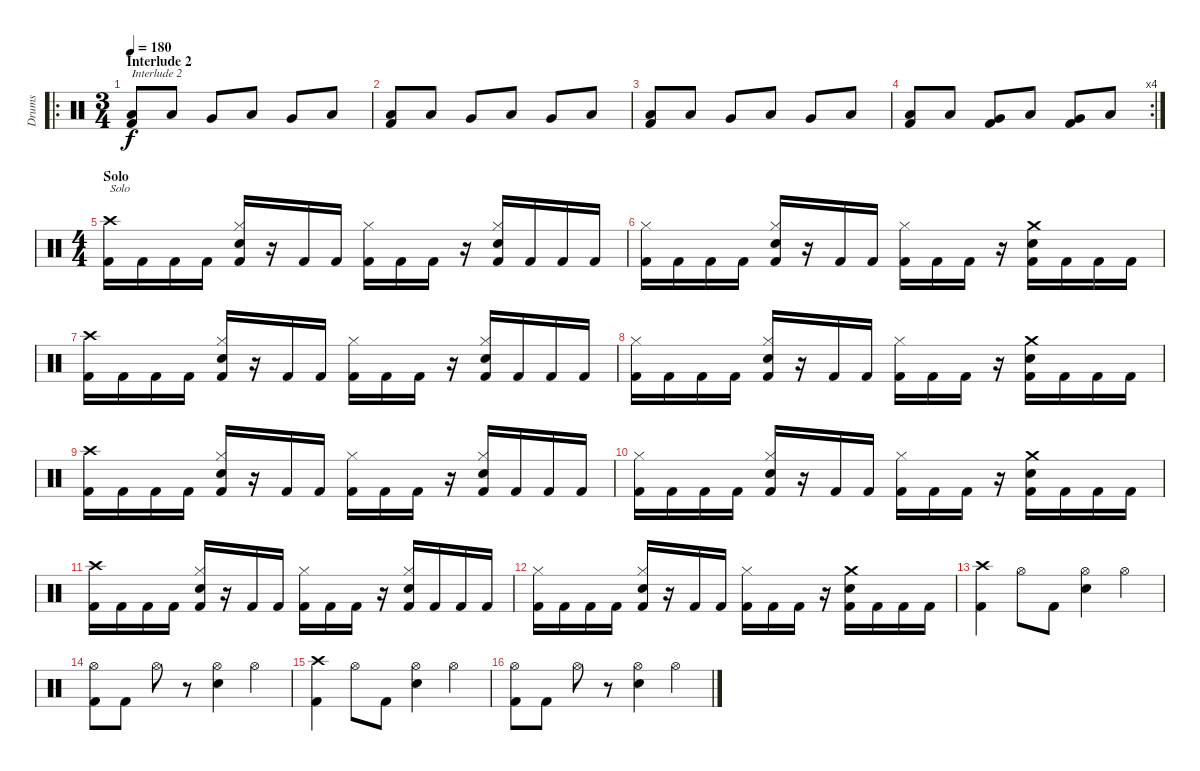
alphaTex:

\track ("Drums" "Drums") {instrument percussion}
\staff {score}
\articulation defaults
\ro
\ts (3 4)
\section ("" "Interlude 2")
\tempo 180
\clef neutral
\ks c
("Low Tom (hit)" "Kick (hit) 2").8{txt "Interlude 2" dy f} "Low Floor Tom (hit)".8 "Very Low Tom (hit)".8 "Low Tom (hit)".8 "Very Low Tom (hit)".8 "Low Tom (hit)".8 |
("Low Tom (hit)" "Kick (hit) 2").8 "Low Floor Tom (hit)".8 "Very Low Tom (hit)".8 "Low Tom (hit)".8 "Very Low Tom (hit)".8 "Low Tom (hit)".8 |
("Low Tom (hit)" "Kick (hit) 2").8 "Low Floor Tom (hit)".8 "Very Low Tom (hit)".8 "Low Tom (hit)".8 "Very Low Tom (hit)".8 "Low Tom (hit)".8 |
\rc 4
("Low Tom (hit)" "Kick (hit) 2").8 "Low Floor Tom (hit)".8 ("Very Low Tom (hit)" "Kick (hit) 2").8 "Low Tom (hit)".8 ("Very Low Tom (hit)" "Kick (hit) 2").8 "Low Tom (hit)".8 |
\ts (4 4)
\section ("" "Solo")
("Crash high (hit)" "Kick (hit) 2").16{txt "Solo"} "Kick (hit) 2".16 "Kick (hit) 2".16 "Kick (hit) 2".16 ("Hi-Hat (closed)" "Snare (hit) 2" "Kick (hit) 2").16 r.16 "Kick (hit) 2".16 "Kick (hit) 2".16 ("Hi-Hat (closed)" "Kick (hit) 2").16 "Kick (hit) 2".16 "Kick (hit) 2".16 r.16 ("Hi-Hat (closed)" "Snare (hit) 2" "Kick (hit) 2").16 "Kick (hit) 2".16 "Kick (hit) 2".16 "Kick (hit) 2".16 |
("Hi-Hat (closed)" "Kick (hit) 2").16 "Kick (hit) 2".16 "Kick (hit) 2".16 "Kick (hit) 2".16 ("Hi-Hat (closed)" "Snare (hit) 2" "Kick (hit) 2").16 r.16 "Kick (hit) 2".16 "Kick (hit) 2".16 ("Hi-Hat (closed)" "Kick (hit) 2").16 "Kick (hit) 2".16 "Kick (hit) 2".16 r.16 ("Crash medium (hit)" "Snare (hit) 2" "Kick (hit) 2").16 "Kick (hit) 2".16 "Kick (hit) 2".16 "Kick (hit) 2".16 |
("Crash high (hit)" "Kick (hit) 2").16 "Kick (hit) 2".16 "Kick (hit) 2".16 "Kick (hit) 2".16 ("Hi-Hat (closed)" "Snare (hit) 2" "Kick (hit) 2").16 r.16 "Kick (hit) 2".16 "Kick (hit) 2".16 ("Hi-Hat (closed)" "Kick (hit) 2").16 "Kick (hit) 2".16 "Kick (hit) 2".16 r.16 ("Hi-Hat (closed)" "Snare (hit) 2" "Kick (hit) 2").16 "Kick (hit) 2".16 "Kick (hit) 2".16 "Kick (hit) 2".16 |
("Hi-Hat (closed)" "Kick (hit) 2").16 "Kick (hit) 2".16 "Kick (hit) 2".16 "Kick (hit) 2".16 ("Hi-Hat (closed)" "Snare (hit) 2" "Kick (hit) 2").16 r.16 "Kick (hit) 2".16 "Kick (hit) 2".16 ("Hi-Hat (closed)" "Kick (hit) 2").16 "Kick (hit) 2".16 "Kick (hit) 2".16 r.16 ("Crash medium (hit)" "Snare (hit) 2" "Kick (hit) 2").16 "Kick (hit) 2".16 "Kick (hit) 2".16 "Kick (hit) 2".16 |
("Crash high (hit)" "Kick (hit) 2").16 "Kick (hit) 2".16 "Kick (hit) 2".16 "Kick (hit) 2".16 ("Hi-Hat (closed)" "Snare (hit) 2" "Kick (hit) 2").16 r.16 "Kick (hit) 2".16 "Kick (hit) 2".16 ("Hi-Hat (closed)" "Kick (hit) 2").16 "Kick (hit) 2".16 "Kick (hit) 2".16 r.16 ("Hi-Hat (closed)" "Snare (hit) 2" "Kick (hit) 2").16 "Kick (hit) 2".16 "Kick (hit) 2".16 "Kick (hit) 2".16 |
("Hi-Hat (closed)" "Kick (hit) 2").16 "Kick (hit) 2".16 "Kick (hit) 2".16 "Kick (hit) 2".16 ("Hi-Hat (closed)" "Snare (hit) 2" "Kick (hit) 2").16 r.16 "Kick (hit) 2".16 "Kick (hit) 2".16 ("Hi-Hat (closed)" "Kick (hit) 2").16 "Kick (hit) 2".16 "Kick (hit) 2".16 r.16 ("Crash medium (hit)" "Snare (hit) 2" "Kick (hit) 2").16 "Kick (hit) 2".16 "Kick (hit) 2".16 "Kick (hit) 2".16 |
("Crash high (hit)" "Kick (hit) 2").16 "Kick (hit) 2".16 "Kick (hit) 2".16 "Kick (hit) 2".16 ("Hi-Hat (closed)" "Snare (hit) 2" "Kick (hit) 2").16 r.16 "Kick (hit) 2".16 "Kick (hit) 2".16 ("Hi-Hat (closed)" "Kick (hit) 2").16 "Kick (hit) 2".16 "Kick (hit) 2".16 r.16 ("Hi-Hat (closed)" "Snare (hit) 2" "Kick (hit) 2").16 "Kick (hit) 2".16 "Kick (hit) 2".16 "Kick (hit) 2".16 |
("Hi-Hat (closed)" "Kick (hit) 2").16 "Kick (hit) 2".16 "Kick (hit) 2".16 "Kick (hit) 2".16 ("Hi-Hat (closed)" "Snare (hit) 2" "Kick (hit) 2").16 r.16 "Kick (hit) 2".16 "Kick (hit) 2".16 ("Hi-Hat (closed)" "Kick (hit) 2").16 "Kick (hit) 2".16 "Kick (hit) 2".16 r.16 ("Crash medium (hit)" "Snare (hit) 2" "Kick (hit) 2").16 "Kick (hit) 2".16 "Kick (hit) 2".16 "Kick (hit) 2".16 |
("Crash high (hit)" "Kick (hit) 2").4 "Hi-Hat (open)".8 "Kick (hit) 2".8 ("Hi-Hat (open)" "Electric Snare (hit)").4 "Hi-Hat (open)".4 |
("Hi-Hat (open)" "Kick (hit) 2").8 "Kick (hit) 2".8 "Hi-Hat (open)".8 r.8 ("Hi-Hat (open)" "Electric Snare (hit)").4 "Hi-Hat (open)".4 |
("Crash high (hit)" "Kick (hit) 2").4 "Hi-Hat (open)".8 "Kick (hit) 2".8 ("Hi-Hat (open)" "Electric Snare (hit)").4 "Hi-Hat (open)".4 |
("Hi-Hat (open)" "Kick (hit) 2").8 "Kick (hit) 2".8 "Hi-Hat (open)".8 r.8 ("Hi-Hat (open)" "Electric Snare (hit)").4 "Hi-Hat (open)".4
